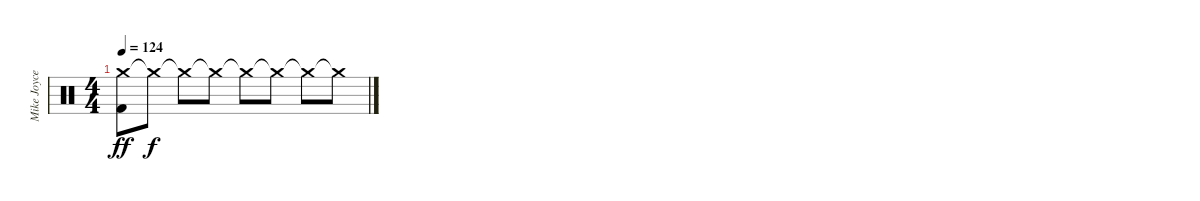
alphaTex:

\track ("Mike Joyce" "Mike Joyce") {instrument percussion}
\staff {score}
\articulation defaults
\ts (4 4)
\tempo 124
\clef neutral
\ks c
("Crash medium (hit)" "Kick (hit) 2").8{dy ff} "Crash medium (hit)"{t}.8{dy f} "Crash medium (hit)"{t}.8 "Crash medium (hit)"{t}.8 "Crash medium (hit)"{t}.8 "Crash medium (hit)"{t}.8 "Crash medium (hit)"{t}.8 "Crash medium (hit)"{t}.8
